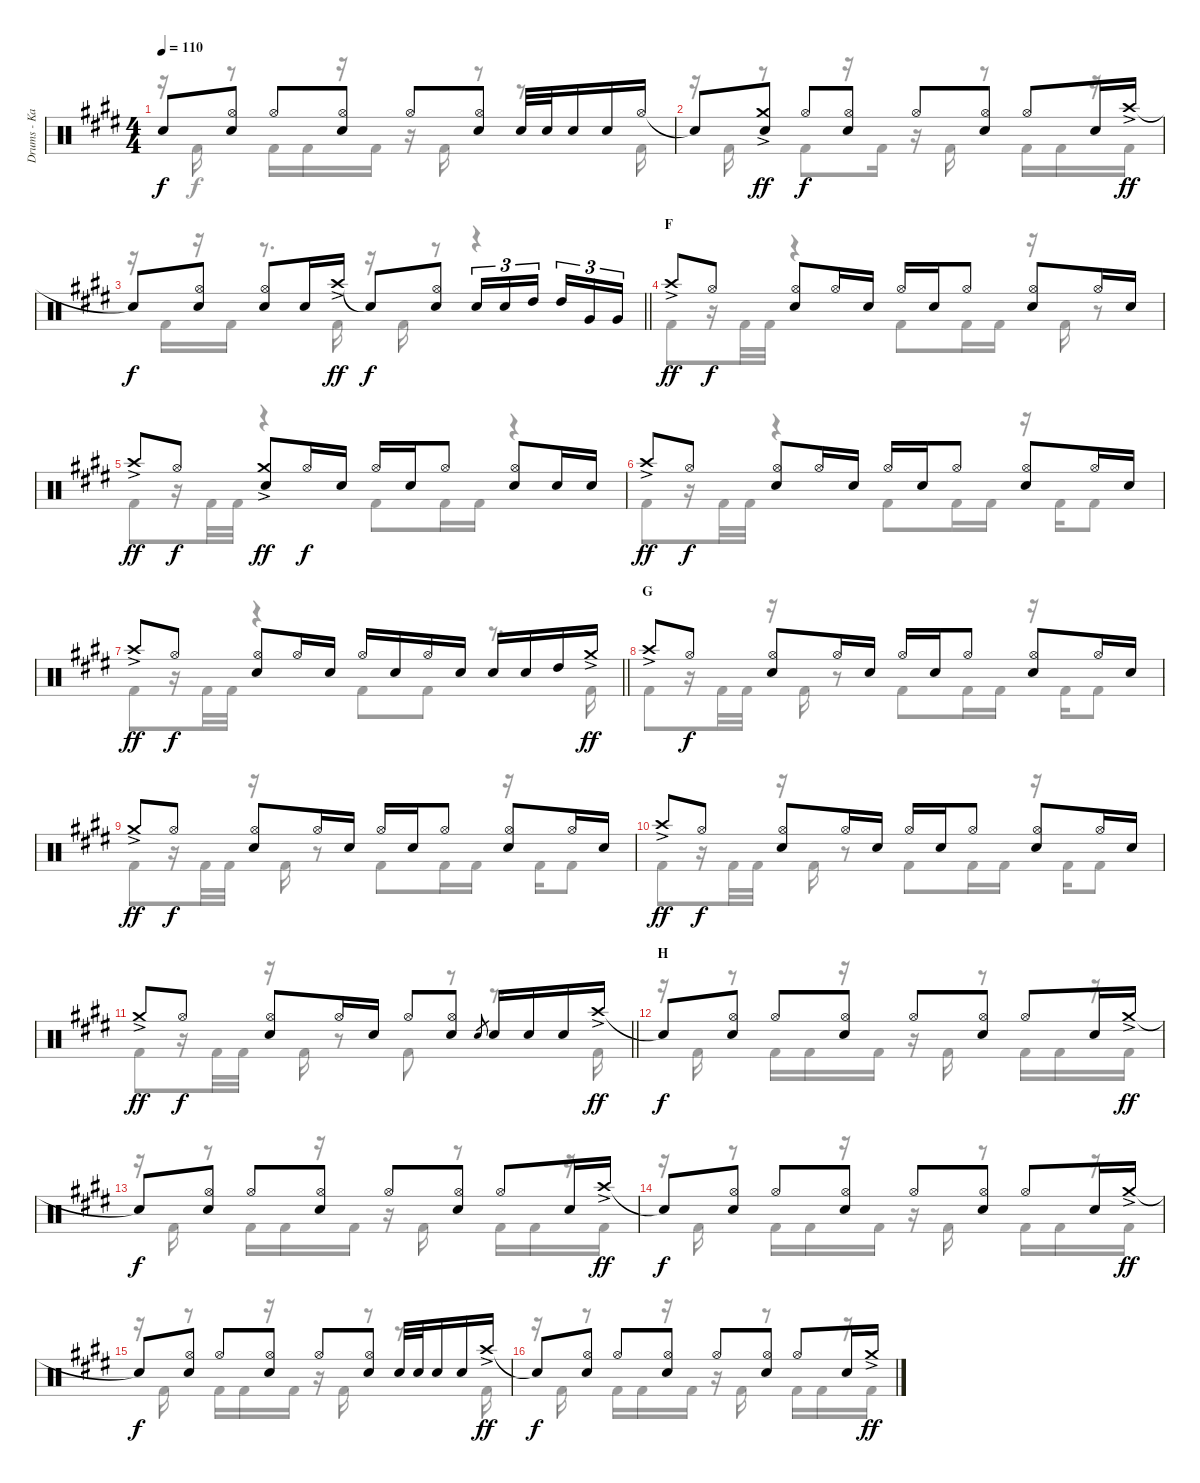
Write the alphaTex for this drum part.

\track ("Drums - Kai" "Drums - Ka") {instrument percussion}
\staff {score}
\articulation defaults
\voice
\ts (4 4)
\tempo 110
\clef neutral
\ks e "Snare (hit)"{t}.8{dy f}
("Hi-Hat (open)" "Snare (hit) 2").8 "Hi-Hat (open)".8 ("Hi-Hat (open)" "Snare (hit) 2").8 "Hi-Hat (open)".8 ("Hi-Hat (open)" "Snare (hit) 2").8 "Snare (hit) 2".32 "Snare (hit) 2".32 "Snare (hit) 2".16 "Snare (hit) 2".16 "Hi-Hat (open)".16 |
"Snare (hit)"{t}.8 ("Crash medium (hit)"{ac} "Snare (hit) 2").8{dy ff} "Hi-Hat (open)".8{dy f} ("Hi-Hat (open)" "Snare (hit) 2").8 "Hi-Hat (open)".8 ("Hi-Hat (open)" "Snare (hit) 2").8 "Hi-Hat (open)".8 "Snare (hit) 2".16 "Crash high (hit)"{ac}.16{dy ff} |
\barLineRight lightlight "Snare (hit)"{t}.8{dy f}
("Hi-Hat (open)" "Snare (hit) 2").8 ("Hi-Hat (open)" "Snare (hit) 2").8 "Snare (hit) 2".16 "Crash high (hit)"{ac}.16{dy ff} "Snare (hit)"{t}.8{dy f} ("Hi-Hat (open)" "Snare (hit) 2").8 "Snare (hit) 2".16{tu (3 2)} "Snare (hit) 2".16{tu (3 2)} "High Tom (hit)".16{tu (3 2) beam splitsecondary} "High Tom (hit)".16{tu (3 2)} "Very Low Tom (hit)".16{tu (3 2)} "Very Low Tom (hit)".16{tu (3 2)} |
\section ("" "F")
"Crash high (hit)"{ac}.8{dy ff} "Hi-Hat (open)".8{dy f} ("Hi-Hat (open)" "Snare (hit) 2").8 "Hi-Hat (open)".16 "Snare (hit) 2".16 "Hi-Hat (open)".16 "Snare (hit) 2".16 "Hi-Hat (open)".8 ("Hi-Hat (open)" "Snare (hit) 2").8 "Hi-Hat (open)".16 "Snare (hit) 2".16 |
"Crash high (hit)"{ac}.8{dy ff} "Hi-Hat (open)".8{dy f} ("Crash medium (hit)"{ac} "Snare (hit) 2").8{dy ff} "Hi-Hat (open)".16{dy f} "Snare (hit) 2".16 "Hi-Hat (open)".16 "Snare (hit) 2".16 "Hi-Hat (open)".8 ("Hi-Hat (open)" "Snare (hit) 2").8 "Snare (hit) 2".16 "Snare (hit) 2".16 |
"Crash high (hit)"{ac}.8{dy ff} "Hi-Hat (open)".8{dy f} ("Hi-Hat (open)" "Snare (hit) 2").8 "Hi-Hat (open)".16 "Snare (hit) 2".16 "Hi-Hat (open)".16 "Snare (hit) 2".16 "Hi-Hat (open)".8 ("Hi-Hat (open)" "Snare (hit) 2").8 "Hi-Hat (open)".16 "Snare (hit) 2".16 |
\barLineRight lightlight "Crash high (hit)"{ac}.8{dy ff} "Hi-Hat (open)".8{dy f}
("Hi-Hat (open)" "Snare (hit) 2").8 "Hi-Hat (open)".16 "Snare (hit) 2".16 "Hi-Hat (open)".16 "Snare (hit) 2".16 "Hi-Hat (open)".16 "Snare (hit) 2".16 "Snare (hit) 2".16 "Snare (hit) 2".16 "High Tom (hit)".16 "Crash medium (hit)"{ac}.16{dy ff} |
\section ("" "G")
"Crash high (hit)"{ac}.8 "Hi-Hat (open)".8{dy f} ("Hi-Hat (open)" "Snare (hit) 2").8 "Hi-Hat (open)".16 "Snare (hit) 2".16 "Hi-Hat (open)".16 "Snare (hit) 2".16 "Hi-Hat (open)".8 ("Hi-Hat (open)" "Snare (hit) 2").8 "Hi-Hat (open)".16 "Snare (hit) 2".16 |
"Crash medium (hit)"{ac}.8{dy ff} "Hi-Hat (open)".8{dy f} ("Hi-Hat (open)" "Snare (hit) 2").8 "Hi-Hat (open)".16 "Snare (hit) 2".16 "Hi-Hat (open)".16 "Snare (hit) 2".16 "Hi-Hat (open)".8 ("Hi-Hat (open)" "Snare (hit) 2").8 "Hi-Hat (open)".16 "Snare (hit) 2".16 |
"Crash high (hit)"{ac}.8{dy ff} "Hi-Hat (open)".8{dy f} ("Hi-Hat (open)" "Snare (hit) 2").8 "Hi-Hat (open)".16 "Snare (hit) 2".16 "Hi-Hat (open)".16 "Snare (hit) 2".16 "Hi-Hat (open)".8 ("Hi-Hat (open)" "Snare (hit) 2").8 "Hi-Hat (open)".16 "Snare (hit) 2".16 |
\barLineRight lightlight "Crash medium (hit)"{ac}.8{dy ff} "Hi-Hat (open)".8{dy f}
("Hi-Hat (open)" "Snare (hit) 2").8 "Hi-Hat (open)".16 "Snare (hit) 2".16 "Hi-Hat (open)".8 ("Hi-Hat (open)" "Snare (hit) 2").8 "Snare (hit) 2".8{gr} "Snare (hit) 2".16 "Snare (hit) 2".16 "Snare (hit) 2".16 "Crash high (hit)"{ac}.16{dy ff} |
\section ("" "H")
"Snare (hit)"{t}.8{dy f} ("Hi-Hat (open)" "Snare (hit) 2").8 "Hi-Hat (open)".8 ("Hi-Hat (open)" "Snare (hit) 2").8 "Hi-Hat (open)".8 ("Hi-Hat (open)" "Snare (hit) 2").8 "Hi-Hat (open)".8 "Snare (hit) 2".16 "Crash medium (hit)"{ac}.16{dy ff} |
"Snare (hit)"{t}.8{dy f} ("Hi-Hat (open)" "Snare (hit) 2").8 "Hi-Hat (open)".8 ("Hi-Hat (open)" "Snare (hit) 2").8 "Hi-Hat (open)".8 ("Hi-Hat (open)" "Snare (hit) 2").8 "Hi-Hat (open)".8 "Snare (hit) 2".16 "Crash high (hit)"{ac}.16{dy ff} |
"Snare (hit)"{t}.8{dy f} ("Hi-Hat (open)" "Snare (hit) 2").8 "Hi-Hat (open)".8 ("Hi-Hat (open)" "Snare (hit) 2").8 "Hi-Hat (open)".8 ("Hi-Hat (open)" "Snare (hit) 2").8 "Hi-Hat (open)".8 "Snare (hit) 2".16 "Crash medium (hit)"{ac}.16{dy ff} |
"Snare (hit)"{t}.8{dy f} ("Hi-Hat (open)" "Snare (hit) 2").8 "Hi-Hat (open)".8 ("Hi-Hat (open)" "Snare (hit) 2").8 "Hi-Hat (open)".8 ("Hi-Hat (open)" "Snare (hit) 2").8 "Snare (hit) 2".32 "Snare (hit) 2".32 "Snare (hit) 2".16 "Snare (hit) 2".16 "Crash high (hit)"{ac}.16{dy ff} |
"Snare (hit)"{t}.8{dy f} ("Hi-Hat (open)" "Snare (hit) 2").8 "Hi-Hat (open)".8 ("Hi-Hat (open)" "Snare (hit) 2").8 "Hi-Hat (open)".8 ("Hi-Hat (open)" "Snare (hit) 2").8 "Hi-Hat (open)".8 "Snare (hit) 2".16 "Crash medium (hit)"{ac}.16{dy ff}
\voice
\clef neutral
\ottava regular
\simile none
\ks e
r.16{dy f} "Kick (hit) 2".16 r.8 "Kick (hit) 2".16 "Kick (hit) 2".16 r.16 "Kick (hit) 2".16 r.16 "Kick (hit) 2".16 r.8 r.8{d} "Kick (hit) 2".16 |
r.16 "Kick (hit) 2".16 r.8 "Kick (hit) 2".8 r.16 "Kick (hit) 2".16 r.16 "Kick (hit) 2".16 r.8 "Kick (hit) 2".16 "Kick (hit) 2".16 r.16 "Kick (hit) 2".16 |
\barLineRight lightlight
r.16 "Kick (hit) 2".16 r.16 "Kick (hit) 2".16 r.8{d} "Kick (hit) 2".16 r.16 "Kick (hit) 2".16 r.8 r.4 |
"Kick (hit) 2".8 r.16 "Kick (hit) 2".32 "Kick (hit) 2".32 r.4 "Kick (hit) 2".8 "Kick (hit) 2".16 "Kick (hit) 2".16 r.16 "Kick (hit) 2".16 r.8 |
"Kick (hit) 2".8 r.16 "Kick (hit) 2".32 "Kick (hit) 2".32 r.4 "Kick (hit) 2".8 "Kick (hit) 2".16 "Kick (hit) 2".16 r.4 |
"Kick (hit) 2".8 r.16 "Kick (hit) 2".32 "Kick (hit) 2".32 r.4 "Kick (hit) 2".8 "Kick (hit) 2".16 "Kick (hit) 2".16 r.16 "Kick (hit) 2".16 "Kick (hit) 2".8 |
\barLineRight lightlight "Kick (hit) 2".8
r.16 "Kick (hit) 2".32 "Kick (hit) 2".32 r.4 "Kick (hit) 2".8 "Kick (hit) 2".8 r.8{d} "Kick (hit) 2".16 |
"Kick (hit) 2".8 r.16 "Kick (hit) 2".32 "Kick (hit) 2".32 r.16 "Kick (hit) 2".16 r.8 "Kick (hit) 2".8 "Kick (hit) 2".16 "Kick (hit) 2".16 r.16 "Kick (hit) 2".16 "Kick (hit) 2".8 |
"Kick (hit) 2".8 r.16 "Kick (hit) 2".32 "Kick (hit) 2".32 r.16 "Kick (hit) 2".16 r.8 "Kick (hit) 2".8 "Kick (hit) 2".16 "Kick (hit) 2".16 r.16 "Kick (hit) 2".16 "Kick (hit) 2".8 |
"Kick (hit) 2".8 r.16 "Kick (hit) 2".32 "Kick (hit) 2".32 r.16 "Kick (hit) 2".16 r.8 "Kick (hit) 2".8 "Kick (hit) 2".16 "Kick (hit) 2".16 r.16 "Kick (hit) 2".16 "Kick (hit) 2".8 |
\barLineRight lightlight "Kick (hit) 2".8
r.16 "Kick (hit) 2".32 "Kick (hit) 2".32 r.16 "Kick (hit) 2".16 r.8 "Kick (hit) 2".8 r.8 r.8{d} "Kick (hit) 2".16 |
r.16 "Kick (hit) 2".16 r.8 "Kick (hit) 2".16 "Kick (hit) 2".16 r.16 "Kick (hit) 2".16 r.16 "Kick (hit) 2".16 r.8 "Kick (hit) 2".16 "Kick (hit) 2".16 r.16 "Kick (hit) 2".16 |
r.16 "Kick (hit) 2".16 r.8 "Kick (hit) 2".16 "Kick (hit) 2".16 r.16 "Kick (hit) 2".16 r.16 "Kick (hit) 2".16 r.8 "Kick (hit) 2".16 "Kick (hit) 2".16 r.16 "Kick (hit) 2".16 |
r.16 "Kick (hit) 2".16 r.8 "Kick (hit) 2".16 "Kick (hit) 2".16 r.16 "Kick (hit) 2".16 r.16 "Kick (hit) 2".16 r.8 "Kick (hit) 2".16 "Kick (hit) 2".16 r.16 "Kick (hit) 2".16 |
r.16 "Kick (hit) 2".16 r.8 "Kick (hit) 2".16 "Kick (hit) 2".16 r.16 "Kick (hit) 2".16 r.16 "Kick (hit) 2".16 r.8 r.8{d} "Kick (hit) 2".16 |
r.16 "Kick (hit) 2".16 r.8 "Kick (hit) 2".16 "Kick (hit) 2".16 r.16 "Kick (hit) 2".16 r.16 "Kick (hit) 2".16 r.8 "Kick (hit) 2".16 "Kick (hit) 2".16 r.16 "Kick (hit) 2".16
